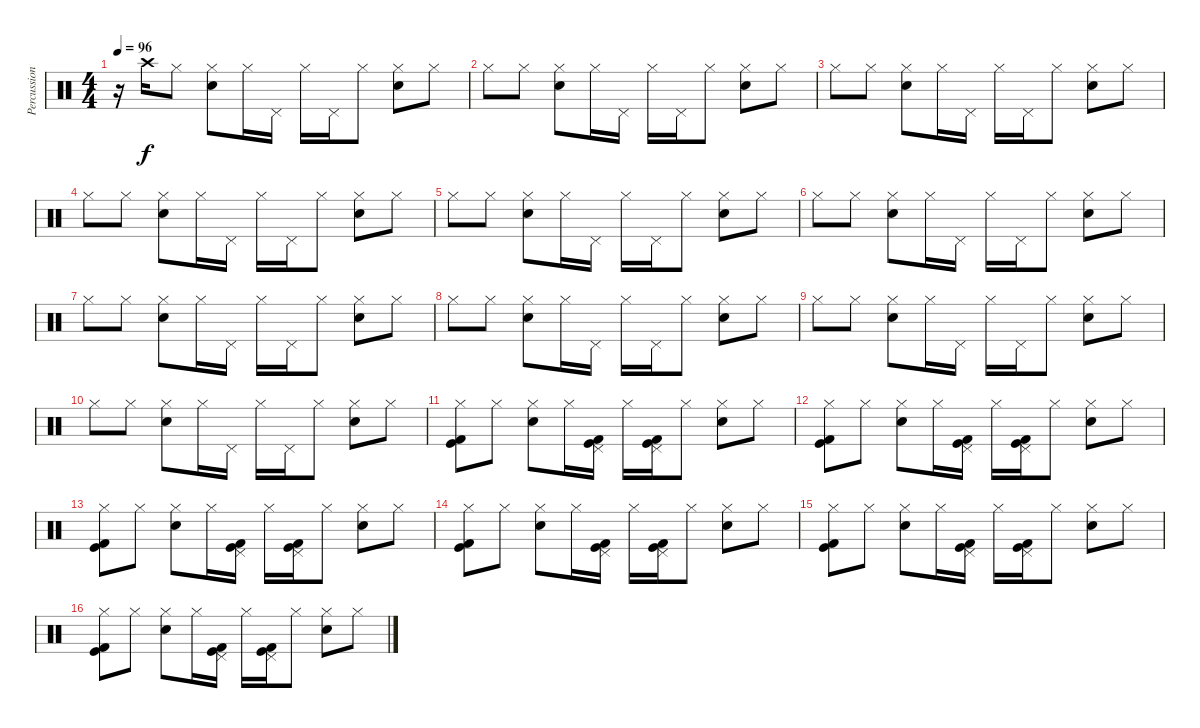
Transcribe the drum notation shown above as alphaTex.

\track ("Percussions" "Percussion") {instrument percussion}
\staff {score}
\articulation defaults
\ts (4 4)
\tempo 96
\clef neutral
\ks c
r.16{dy f} "Crash high (hit)".16 "Hi-Hat (closed)".8 ("Hi-Hat (closed)" "Snare (hit) 2").8 "Hi-Hat (closed)".16 "Pedal Hi-Hat (hit)".16 "Hi-Hat (closed)".16 "Pedal Hi-Hat (hit)".16 "Hi-Hat (closed)".8 ("Hi-Hat (closed)" "Snare (hit) 2").8 "Hi-Hat (closed)".8 |
"Hi-Hat (closed)".8 "Hi-Hat (closed)".8 ("Hi-Hat (closed)" "Snare (hit) 2").8 "Hi-Hat (closed)".16 "Pedal Hi-Hat (hit)".16 "Hi-Hat (closed)".16 "Pedal Hi-Hat (hit)".16 "Hi-Hat (closed)".8 ("Hi-Hat (closed)" "Snare (hit) 2").8 "Hi-Hat (closed)".8 |
"Hi-Hat (closed)".8 "Hi-Hat (closed)".8 ("Hi-Hat (closed)" "Snare (hit) 2").8 "Hi-Hat (closed)".16 "Pedal Hi-Hat (hit)".16 "Hi-Hat (closed)".16 "Pedal Hi-Hat (hit)".16 "Hi-Hat (closed)".8 ("Hi-Hat (closed)" "Snare (hit) 2").8 "Hi-Hat (closed)".8 |
"Hi-Hat (closed)".8 "Hi-Hat (closed)".8 ("Hi-Hat (closed)" "Snare (hit) 2").8 "Hi-Hat (closed)".16 "Pedal Hi-Hat (hit)".16 "Hi-Hat (closed)".16 "Pedal Hi-Hat (hit)".16 "Hi-Hat (closed)".8 ("Hi-Hat (closed)" "Snare (hit) 2").8 "Hi-Hat (closed)".8 |
"Hi-Hat (closed)".8 "Hi-Hat (closed)".8 ("Hi-Hat (closed)" "Snare (hit) 2").8 "Hi-Hat (closed)".16 "Pedal Hi-Hat (hit)".16 "Hi-Hat (closed)".16 "Pedal Hi-Hat (hit)".16 "Hi-Hat (closed)".8 ("Hi-Hat (closed)" "Snare (hit) 2").8 "Hi-Hat (closed)".8 |
"Hi-Hat (closed)".8 "Hi-Hat (closed)".8 ("Hi-Hat (closed)" "Snare (hit) 2").8 "Hi-Hat (closed)".16 "Pedal Hi-Hat (hit)".16 "Hi-Hat (closed)".16 "Pedal Hi-Hat (hit)".16 "Hi-Hat (closed)".8 ("Hi-Hat (closed)" "Snare (hit) 2").8 "Hi-Hat (closed)".8 |
"Hi-Hat (closed)".8 "Hi-Hat (closed)".8 ("Hi-Hat (closed)" "Snare (hit) 2").8 "Hi-Hat (closed)".16 "Pedal Hi-Hat (hit)".16 "Hi-Hat (closed)".16 "Pedal Hi-Hat (hit)".16 "Hi-Hat (closed)".8 ("Hi-Hat (closed)" "Snare (hit) 2").8 "Hi-Hat (closed)".8 |
"Hi-Hat (closed)".8 "Hi-Hat (closed)".8 ("Hi-Hat (closed)" "Snare (hit) 2").8 "Hi-Hat (closed)".16 "Pedal Hi-Hat (hit)".16 "Hi-Hat (closed)".16 "Pedal Hi-Hat (hit)".16 "Hi-Hat (closed)".8 ("Hi-Hat (closed)" "Snare (hit) 2").8 "Hi-Hat (closed)".8 |
"Hi-Hat (closed)".8 "Hi-Hat (closed)".8 ("Hi-Hat (closed)" "Snare (hit) 2").8 "Hi-Hat (closed)".16 "Pedal Hi-Hat (hit)".16 "Hi-Hat (closed)".16 "Pedal Hi-Hat (hit)".16 "Hi-Hat (closed)".8 ("Hi-Hat (closed)" "Snare (hit) 2").8 "Hi-Hat (closed)".8 |
"Hi-Hat (closed)".8 "Hi-Hat (closed)".8 ("Hi-Hat (closed)" "Snare (hit) 2").8 "Hi-Hat (closed)".16 "Pedal Hi-Hat (hit)".16 "Hi-Hat (closed)".16 "Pedal Hi-Hat (hit)".16 "Hi-Hat (closed)".8 ("Hi-Hat (closed)" "Snare (hit) 2").8 "Hi-Hat (closed)".8 |
("Kick (hit) 2" "Hi-Hat (closed)" "Kick (hit)").8 "Hi-Hat (closed)".8 ("Hi-Hat (closed)" "Snare (hit) 2").8 "Hi-Hat (closed)".16 ("Kick (hit) 2" "Pedal Hi-Hat (hit)" "Kick (hit)").16 "Hi-Hat (closed)".16 ("Kick (hit) 2" "Pedal Hi-Hat (hit)" "Kick (hit)").16 "Hi-Hat (closed)".8 ("Hi-Hat (closed)" "Snare (hit) 2").8 "Hi-Hat (closed)".8 |
("Kick (hit) 2" "Hi-Hat (closed)" "Kick (hit)").8 "Hi-Hat (closed)".8 ("Hi-Hat (closed)" "Snare (hit) 2").8 "Hi-Hat (closed)".16 ("Kick (hit) 2" "Pedal Hi-Hat (hit)" "Kick (hit)").16 "Hi-Hat (closed)".16 ("Kick (hit) 2" "Pedal Hi-Hat (hit)" "Kick (hit)").16 "Hi-Hat (closed)".8 ("Hi-Hat (closed)" "Snare (hit) 2").8 "Hi-Hat (closed)".8 |
("Kick (hit) 2" "Hi-Hat (closed)" "Kick (hit)").8 "Hi-Hat (closed)".8 ("Hi-Hat (closed)" "Snare (hit) 2").8 "Hi-Hat (closed)".16 ("Kick (hit) 2" "Pedal Hi-Hat (hit)" "Kick (hit)").16 "Hi-Hat (closed)".16 ("Kick (hit) 2" "Pedal Hi-Hat (hit)" "Kick (hit)").16 "Hi-Hat (closed)".8 ("Hi-Hat (closed)" "Snare (hit) 2").8 "Hi-Hat (closed)".8 |
("Kick (hit) 2" "Hi-Hat (closed)" "Kick (hit)").8 "Hi-Hat (closed)".8 ("Hi-Hat (closed)" "Snare (hit) 2").8 "Hi-Hat (closed)".16 ("Kick (hit) 2" "Pedal Hi-Hat (hit)" "Kick (hit)").16 "Hi-Hat (closed)".16 ("Kick (hit) 2" "Pedal Hi-Hat (hit)" "Kick (hit)").16 "Hi-Hat (closed)".8 ("Hi-Hat (closed)" "Snare (hit) 2").8 "Hi-Hat (closed)".8 |
("Kick (hit) 2" "Hi-Hat (closed)" "Kick (hit)").8 "Hi-Hat (closed)".8 ("Hi-Hat (closed)" "Snare (hit) 2").8 "Hi-Hat (closed)".16 ("Kick (hit) 2" "Pedal Hi-Hat (hit)" "Kick (hit)").16 "Hi-Hat (closed)".16 ("Kick (hit) 2" "Pedal Hi-Hat (hit)" "Kick (hit)").16 "Hi-Hat (closed)".8 ("Hi-Hat (closed)" "Snare (hit) 2").8 "Hi-Hat (closed)".8 |
("Kick (hit) 2" "Hi-Hat (closed)" "Kick (hit)").8 "Hi-Hat (closed)".8 ("Hi-Hat (closed)" "Snare (hit) 2").8 "Hi-Hat (closed)".16 ("Kick (hit) 2" "Pedal Hi-Hat (hit)" "Kick (hit)").16 "Hi-Hat (closed)".16 ("Kick (hit) 2" "Pedal Hi-Hat (hit)" "Kick (hit)").16 "Hi-Hat (closed)".8 ("Hi-Hat (closed)" "Snare (hit) 2").8 "Hi-Hat (closed)".8
